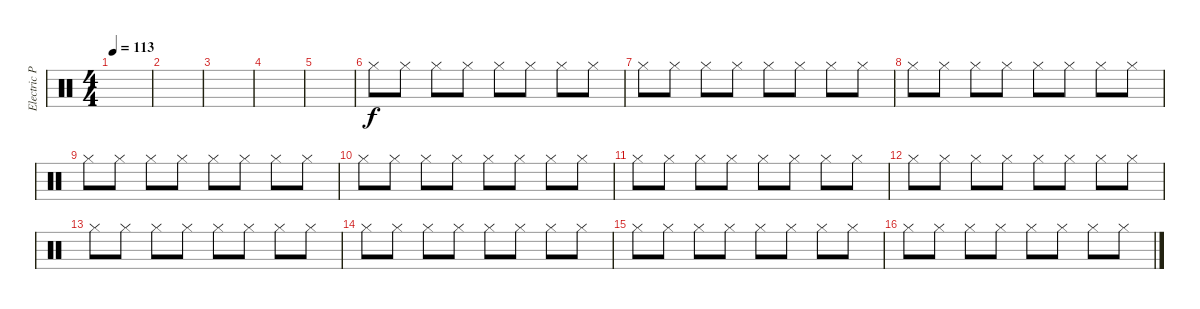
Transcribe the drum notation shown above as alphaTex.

\track ("Electric Percussion" "Electric P") {instrument percussion bank 3}
\staff {score}
\articulation defaults
\ts (4 4)
\tempo 113
\clef neutral
\ks c
|
|
|
|
|
"Hi-Hat (closed)".8 "Hi-Hat (closed)".8 "Hi-Hat (closed)".8 "Hi-Hat (closed)".8 "Hi-Hat (closed)".8 "Hi-Hat (closed)".8 "Hi-Hat (closed)".8 "Hi-Hat (closed)".8 |
"Hi-Hat (closed)".8 "Hi-Hat (closed)".8 "Hi-Hat (closed)".8 "Hi-Hat (closed)".8 "Hi-Hat (closed)".8 "Hi-Hat (closed)".8 "Hi-Hat (closed)".8 "Hi-Hat (closed)".8 |
"Hi-Hat (closed)".8 "Hi-Hat (closed)".8 "Hi-Hat (closed)".8 "Hi-Hat (closed)".8 "Hi-Hat (closed)".8 "Hi-Hat (closed)".8 "Hi-Hat (closed)".8 "Hi-Hat (closed)".8 |
"Hi-Hat (closed)".8 "Hi-Hat (closed)".8 "Hi-Hat (closed)".8 "Hi-Hat (closed)".8 "Hi-Hat (closed)".8 "Hi-Hat (closed)".8 "Hi-Hat (closed)".8 "Hi-Hat (closed)".8 |
"Hi-Hat (closed)".8 "Hi-Hat (closed)".8 "Hi-Hat (closed)".8 "Hi-Hat (closed)".8 "Hi-Hat (closed)".8 "Hi-Hat (closed)".8 "Hi-Hat (closed)".8 "Hi-Hat (closed)".8 |
"Hi-Hat (closed)".8 "Hi-Hat (closed)".8 "Hi-Hat (closed)".8 "Hi-Hat (closed)".8 "Hi-Hat (closed)".8 "Hi-Hat (closed)".8 "Hi-Hat (closed)".8 "Hi-Hat (closed)".8 |
"Hi-Hat (closed)".8 "Hi-Hat (closed)".8 "Hi-Hat (closed)".8 "Hi-Hat (closed)".8 "Hi-Hat (closed)".8 "Hi-Hat (closed)".8 "Hi-Hat (closed)".8 "Hi-Hat (closed)".8 |
"Hi-Hat (closed)".8 "Hi-Hat (closed)".8 "Hi-Hat (closed)".8 "Hi-Hat (closed)".8 "Hi-Hat (closed)".8 "Hi-Hat (closed)".8 "Hi-Hat (closed)".8 "Hi-Hat (closed)".8 |
"Hi-Hat (closed)".8 "Hi-Hat (closed)".8 "Hi-Hat (closed)".8 "Hi-Hat (closed)".8 "Hi-Hat (closed)".8 "Hi-Hat (closed)".8 "Hi-Hat (closed)".8 "Hi-Hat (closed)".8 |
"Hi-Hat (closed)".8 "Hi-Hat (closed)".8 "Hi-Hat (closed)".8 "Hi-Hat (closed)".8 "Hi-Hat (closed)".8 "Hi-Hat (closed)".8 "Hi-Hat (closed)".8 "Hi-Hat (closed)".8 |
"Hi-Hat (closed)".8 "Hi-Hat (closed)".8 "Hi-Hat (closed)".8 "Hi-Hat (closed)".8 "Hi-Hat (closed)".8 "Hi-Hat (closed)".8 "Hi-Hat (closed)".8 "Hi-Hat (closed)".8
